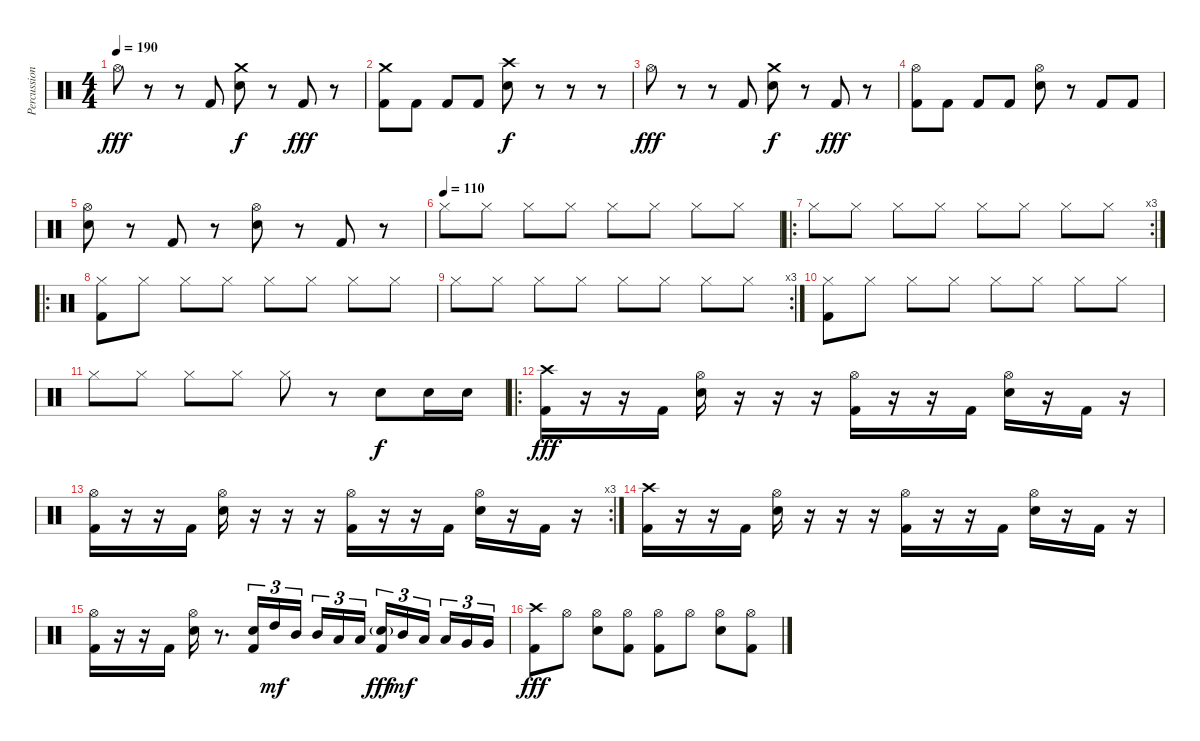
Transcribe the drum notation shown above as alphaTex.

\track ("Percussion" "Percussion") {instrument percussion}
\staff {score}
\articulation defaults
\ts (4 4)
\tempo 190
\clef neutral
\ks c "Hi-Hat (open)".8{dy fff}
r.8 r.8 "Kick (hit) 2".8 ("Crash medium (hit)" "Electric Snare (hit)").8{dy f} r.8 "Kick (hit) 2".8{dy fff} r.8 |
("Crash medium (hit)" "Kick (hit) 2").8 "Kick (hit) 2".8 "Kick (hit) 2".8 "Kick (hit) 2".8 ("Crash high (hit)" "Electric Snare (hit)").8{dy f} r.8 r.8 r.8 |
"Hi-Hat (open)".8{dy fff} r.8 r.8 "Kick (hit) 2".8 ("Crash medium (hit)" "Electric Snare (hit)").8{dy f} r.8 "Kick (hit) 2".8{dy fff} r.8 |
("Hi-Hat (open)" "Kick (hit) 2").8 "Kick (hit) 2".8 "Kick (hit) 2".8 "Kick (hit) 2".8 ("Hi-Hat (open)" "Electric Snare (hit)").8 r.8 "Kick (hit) 2".8 "Kick (hit) 2".8 |
("Hi-Hat (open)" "Electric Snare (hit)").8 r.8 "Kick (hit) 2".8 r.8 ("Hi-Hat (open)" "Electric Snare (hit)").8 r.8 "Kick (hit) 2".8 r.8 |
\tempo (110)
"Hi-Hat (closed)".8 "Hi-Hat (closed)".8 "Hi-Hat (closed)".8 "Hi-Hat (closed)".8 "Hi-Hat (closed)".8 "Hi-Hat (closed)".8 "Hi-Hat (closed)".8 "Hi-Hat (closed)".8 |
\ro
\rc 3 "Hi-Hat (closed)".8 "Hi-Hat (closed)".8 "Hi-Hat (closed)".8 "Hi-Hat (closed)".8 "Hi-Hat (closed)".8 "Hi-Hat (closed)".8 "Hi-Hat (closed)".8 "Hi-Hat (closed)".8
|
\ro
("Hi-Hat (closed)" "Kick (hit) 2").8 "Hi-Hat (closed)".8 "Hi-Hat (closed)".8 "Hi-Hat (closed)".8 "Hi-Hat (closed)".8 "Hi-Hat (closed)".8 "Hi-Hat (closed)".8 "Hi-Hat (closed)".8 |
\rc 3 "Hi-Hat (closed)".8 "Hi-Hat (closed)".8 "Hi-Hat (closed)".8 "Hi-Hat (closed)".8 "Hi-Hat (closed)".8 "Hi-Hat (closed)".8 "Hi-Hat (closed)".8 "Hi-Hat (closed)".8
|
("Hi-Hat (closed)" "Kick (hit) 2").8 "Hi-Hat (closed)".8 "Hi-Hat (closed)".8 "Hi-Hat (closed)".8 "Hi-Hat (closed)".8 "Hi-Hat (closed)".8 "Hi-Hat (closed)".8 "Hi-Hat (closed)".8 |
"Hi-Hat (closed)".8 "Hi-Hat (closed)".8 "Hi-Hat (closed)".8 "Hi-Hat (closed)".8 "Hi-Hat (closed)".8 r.8 "Electric Snare (hit)".8{dy f} "Electric Snare (hit)".16 "Electric Snare (hit)".16 |
\ro
("Crash high (hit)" "Kick (hit) 2").16{dy fff} r.16 r.16 "Kick (hit) 2".16 ("Hi-Hat (open)" "Electric Snare (hit)").16 r.16 r.16 r.16 ("Hi-Hat (open)" "Kick (hit) 2").16 r.16 r.16 "Kick (hit) 2".16 ("Hi-Hat (open)" "Electric Snare (hit)").16 r.16 "Kick (hit) 2".16 r.16 |
\rc 3
("Hi-Hat (open)" "Kick (hit) 2").16 r.16 r.16 "Kick (hit) 2".16 ("Hi-Hat (open)" "Electric Snare (hit)").16 r.16 r.16 r.16 ("Hi-Hat (open)" "Kick (hit) 2").16 r.16 r.16 "Kick (hit) 2".16 ("Hi-Hat (open)" "Electric Snare (hit)").16 r.16 "Kick (hit) 2".16 r.16 |
("Crash high (hit)" "Kick (hit) 2").16 r.16 r.16 "Kick (hit) 2".16 ("Hi-Hat (open)" "Electric Snare (hit)").16 r.16 r.16 r.16 ("Hi-Hat (open)" "Kick (hit) 2").16 r.16 r.16 "Kick (hit) 2".16 ("Hi-Hat (open)" "Electric Snare (hit)").16 r.16 "Kick (hit) 2".16 r.16 |
("Hi-Hat (open)" "Kick (hit) 2").16 r.16 r.16 "Kick (hit) 2".16 ("Hi-Hat (open)" "Electric Snare (hit)").16 r.8{d} ("Electric Snare (hit)" "Kick (hit) 2").16{tu (3 2)} "High Tom (hit)".16{tu (3 2) dy mf} "Mid Tom (hit)".16{tu (3 2)} "Mid Tom (hit)".16{tu (3 2)} "Low Tom (hit)".16{tu (3 2)} "Low Tom (hit)".16{tu (3 2)} ("Electric Snare (hit)"{g} "Kick (hit) 2").16{tu (3 2) dy fff} "Mid Tom (hit)".16{tu (3 2) dy mf} "Low Tom (hit)".16{tu (3 2)} "Low Tom (hit)".16{tu (3 2)} "Very Low Tom (hit)".16{tu (3 2)} "Very Low Tom (hit)".16{tu (3 2)} |
("Crash high (hit)" "Kick (hit) 2").8{dy fff} "Hi-Hat (open)".8 ("Hi-Hat (open)" "Electric Snare (hit)").8 ("Hi-Hat (open)" "Kick (hit) 2").8 ("Hi-Hat (open)" "Kick (hit) 2").8 "Hi-Hat (open)".8 ("Hi-Hat (open)" "Electric Snare (hit)").8 ("Hi-Hat (open)" "Kick (hit) 2").8
